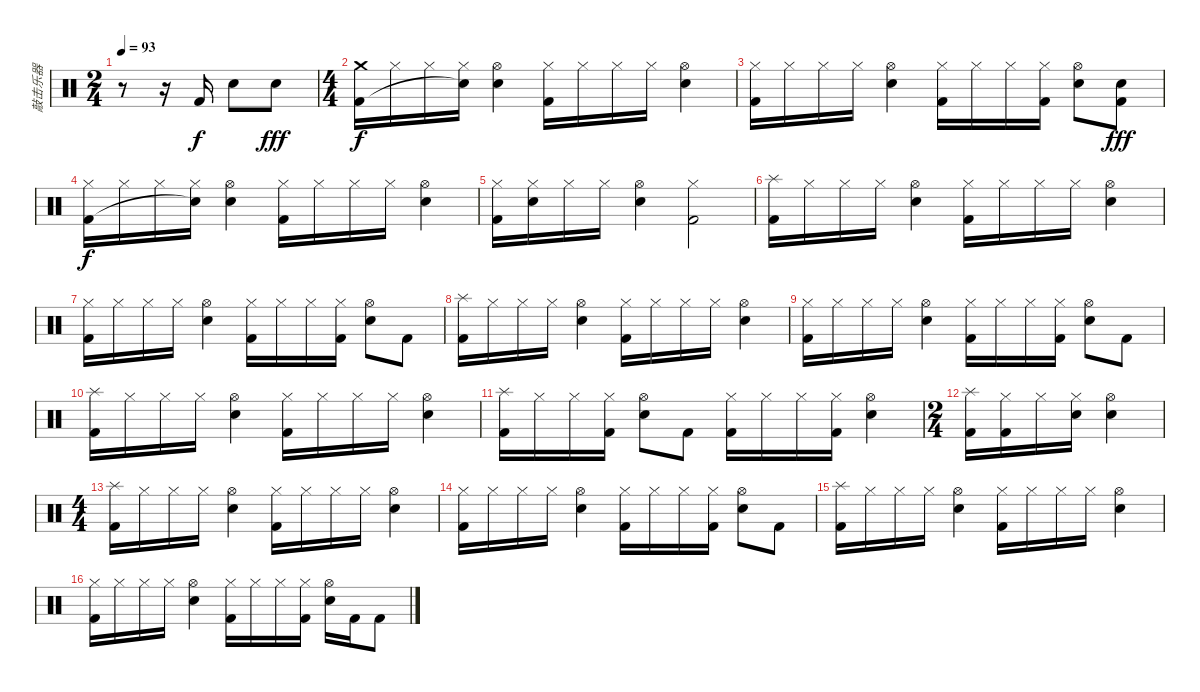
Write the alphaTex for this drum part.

\track ("敲击乐器" "敲击乐器") {instrument percussion}
\staff {score}
\articulation defaults
\ts (2 4)
\tempo 93
\clef neutral
\ks c
r.8{dy f} r.16 "Kick (hit) 2".16 "Metronome (bell)".8 "Hand Clap (hit)".8{dy fff} |
\ts (4 4)
("Crash medium (hit)" "Kick (hit) 2").16{dy f} "Hi-Hat (closed)".16 "Hi-Hat (closed)".16 ("Hi-Hat (closed)" "Snare (hit)"{t}).16 ("Hi-Hat (open)" "Metronome (bell)").4 ("Hi-Hat (closed)" "Kick (hit) 2").16 "Hi-Hat (closed)".16 "Hi-Hat (closed)".16 "Hi-Hat (closed)".16 ("Hi-Hat (open)" "Metronome (bell)").4 |
("Hi-Hat (closed)" "Kick (hit) 2").16 "Hi-Hat (closed)".16 "Hi-Hat (closed)".16 "Hi-Hat (closed)".16 ("Hi-Hat (open)" "Metronome (bell)").4 ("Hi-Hat (closed)" "Kick (hit) 2").16 "Hi-Hat (closed)".16 "Hi-Hat (closed)".16 ("Hi-Hat (closed)" "Kick (hit) 2").16 ("Hi-Hat (open)" "Metronome (bell)").8 ("Hand Clap (hit)" "Kick (hit) 2").8{dy fff} |
("Hi-Hat (closed)" "Kick (hit) 2").16{dy f} "Hi-Hat (closed)".16 "Hi-Hat (closed)".16 ("Hi-Hat (closed)" "Snare (hit)"{t}).16 ("Hi-Hat (open)" "Metronome (bell)").4 ("Hi-Hat (closed)" "Kick (hit) 2").16 "Hi-Hat (closed)".16 "Hi-Hat (closed)".16 "Hi-Hat (closed)".16 ("Hi-Hat (open)" "Metronome (bell)").4 |
("Hi-Hat (closed)" "Kick (hit) 2").16 ("Hi-Hat (closed)" "Metronome (bell)").16 "Hi-Hat (closed)".16 "Hi-Hat (closed)".16 ("Hi-Hat (open)" "Metronome (bell)").4 ("Hi-Hat (closed)" "Kick (hit) 2").2 |
("Splash (hit)" "Kick (hit) 2").16 "Hi-Hat (closed)".16 "Hi-Hat (closed)".16 "Hi-Hat (closed)".16 ("Hi-Hat (open)" "Metronome (bell)").4 ("Hi-Hat (closed)" "Kick (hit) 2").16 "Hi-Hat (closed)".16 "Hi-Hat (closed)".16 "Hi-Hat (closed)".16 ("Hi-Hat (open)" "Metronome (bell)").4 |
("Hi-Hat (closed)" "Kick (hit) 2").16 "Hi-Hat (closed)".16 "Hi-Hat (closed)".16 "Hi-Hat (closed)".16 ("Hi-Hat (open)" "Metronome (bell)").4 ("Hi-Hat (closed)" "Kick (hit) 2").16 "Hi-Hat (closed)".16 "Hi-Hat (closed)".16 ("Hi-Hat (closed)" "Kick (hit) 2").16 ("Hi-Hat (open)" "Metronome (bell)").8 "Kick (hit) 2".8 |
("Splash (hit)" "Kick (hit) 2").16 "Hi-Hat (closed)".16 "Hi-Hat (closed)".16 "Hi-Hat (closed)".16 ("Hi-Hat (open)" "Metronome (bell)").4 ("Hi-Hat (closed)" "Kick (hit) 2").16 "Hi-Hat (closed)".16 "Hi-Hat (closed)".16 "Hi-Hat (closed)".16 ("Hi-Hat (open)" "Metronome (bell)").4 |
("Hi-Hat (closed)" "Kick (hit) 2").16 "Hi-Hat (closed)".16 "Hi-Hat (closed)".16 "Hi-Hat (closed)".16 ("Hi-Hat (open)" "Metronome (bell)").4 ("Hi-Hat (closed)" "Kick (hit) 2").16 "Hi-Hat (closed)".16 "Hi-Hat (closed)".16 ("Hi-Hat (closed)" "Kick (hit) 2").16 ("Hi-Hat (open)" "Metronome (bell)").8 "Kick (hit) 2".8 |
("Splash (hit)" "Kick (hit) 2").16 "Hi-Hat (closed)".16 "Hi-Hat (closed)".16 "Hi-Hat (closed)".16 ("Hi-Hat (open)" "Metronome (bell)").4 ("Hi-Hat (closed)" "Kick (hit) 2").16 "Hi-Hat (closed)".16 "Hi-Hat (closed)".16 "Hi-Hat (closed)".16 ("Hi-Hat (open)" "Metronome (bell)").4 |
("Splash (hit)" "Kick (hit) 2").16 "Hi-Hat (closed)".16 "Hi-Hat (closed)".16 ("Hi-Hat (closed)" "Kick (hit) 2").16 ("Hi-Hat (open)" "Metronome (bell)").8 "Kick (hit) 2".8 ("Hi-Hat (closed)" "Kick (hit) 2").16 "Hi-Hat (closed)".16 "Hi-Hat (closed)".16 ("Hi-Hat (closed)" "Kick (hit) 2").16 ("Hi-Hat (open)" "Metronome (bell)").4 |
\ts (2 4)
("Splash (hit)" "Kick (hit) 2").16 ("Hi-Hat (closed)" "Kick (hit) 2").16 "Hi-Hat (closed)".16 ("Hi-Hat (closed)" "Metronome (bell)").16 ("Hi-Hat (open)" "Metronome (bell)").4 |
\ts (4 4)
("Splash (hit)" "Kick (hit) 2").16 "Hi-Hat (closed)".16 "Hi-Hat (closed)".16 "Hi-Hat (closed)".16 ("Hi-Hat (open)" "Metronome (bell)").4 ("Hi-Hat (closed)" "Kick (hit) 2").16 "Hi-Hat (closed)".16 "Hi-Hat (closed)".16 "Hi-Hat (closed)".16 ("Hi-Hat (open)" "Metronome (bell)").4 |
("Hi-Hat (closed)" "Kick (hit) 2").16 "Hi-Hat (closed)".16 "Hi-Hat (closed)".16 "Hi-Hat (closed)".16 ("Hi-Hat (open)" "Metronome (bell)").4 ("Hi-Hat (closed)" "Kick (hit) 2").16 "Hi-Hat (closed)".16 "Hi-Hat (closed)".16 ("Hi-Hat (closed)" "Kick (hit) 2").16 ("Hi-Hat (open)" "Metronome (bell)").8 "Kick (hit) 2".8 |
("Splash (hit)" "Kick (hit) 2").16 "Hi-Hat (closed)".16 "Hi-Hat (closed)".16 "Hi-Hat (closed)".16 ("Hi-Hat (open)" "Metronome (bell)").4 ("Hi-Hat (closed)" "Kick (hit) 2").16 "Hi-Hat (closed)".16 "Hi-Hat (closed)".16 "Hi-Hat (closed)".16 ("Hi-Hat (open)" "Metronome (bell)").4 |
("Hi-Hat (closed)" "Kick (hit) 2").16 "Hi-Hat (closed)".16 "Hi-Hat (closed)".16 "Hi-Hat (closed)".16 ("Hi-Hat (open)" "Metronome (bell)").4 ("Hi-Hat (closed)" "Kick (hit) 2").16 "Hi-Hat (closed)".16 "Hi-Hat (closed)".16 ("Hi-Hat (closed)" "Kick (hit) 2").16 ("Hi-Hat (open)" "Metronome (bell)").16 "Kick (hit) 2".16 "Kick (hit) 2".8
